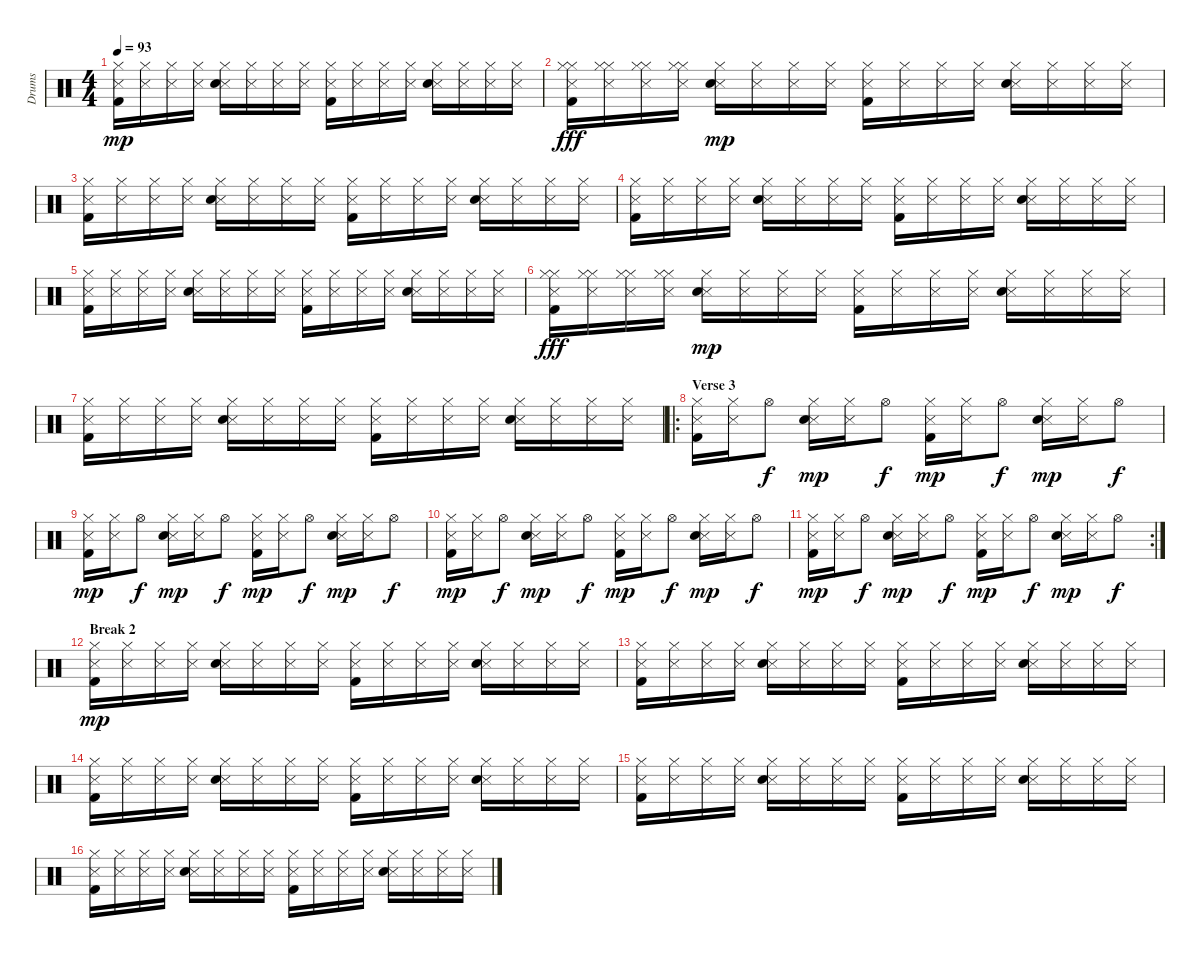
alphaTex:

\track ("Drums" "Drums") {instrument percussion}
\staff {score}
\articulation defaults
\ts (4 4)
\tempo 93
\clef neutral
\ks c
("Metronome (hit)" "Hi-Hat (closed)" "Kick (hit) 2").16{dy mp} ("Metronome (hit)" "Hi-Hat (closed)").16 ("Metronome (hit)" "Hi-Hat (closed)").16 ("Metronome (hit)" "Hi-Hat (closed)").16 ("Metronome (hit)" "Hi-Hat (closed)" "Snare (hit) 2").16 ("Metronome (hit)" "Hi-Hat (closed)").16 ("Metronome (hit)" "Hi-Hat (closed)").16 ("Metronome (hit)" "Hi-Hat (closed)").16 ("Metronome (hit)" "Hi-Hat (closed)" "Kick (hit) 2").16 ("Metronome (hit)" "Hi-Hat (closed)").16 ("Metronome (hit)" "Hi-Hat (closed)").16 ("Metronome (hit)" "Hi-Hat (closed)").16 ("Metronome (hit)" "Hi-Hat (closed)" "Snare (hit) 2").16 ("Metronome (hit)" "Hi-Hat (closed)").16 ("Metronome (hit)" "Hi-Hat (closed)").16 ("Metronome (hit)" "Hi-Hat (closed)").16 |
("Metronome (hit)" "Hi-Hat (closed)" "Hi-Hat (closed)" "Kick (hit) 2").16{dy fff} ("Metronome (hit)" "Hi-Hat (closed)" "Hi-Hat (closed)").16 ("Metronome (hit)" "Hi-Hat (closed)" "Hi-Hat (closed)").16 ("Metronome (hit)" "Hi-Hat (closed)" "Hi-Hat (closed)").16 ("Metronome (hit)" "Hi-Hat (closed)" "Snare (hit) 2").16{dy mp} ("Metronome (hit)" "Hi-Hat (closed)").16 ("Metronome (hit)" "Hi-Hat (closed)").16 ("Metronome (hit)" "Hi-Hat (closed)").16 ("Metronome (hit)" "Hi-Hat (closed)" "Kick (hit) 2").16 ("Metronome (hit)" "Hi-Hat (closed)").16 ("Metronome (hit)" "Hi-Hat (closed)").16 ("Metronome (hit)" "Hi-Hat (closed)").16 ("Metronome (hit)" "Hi-Hat (closed)" "Snare (hit) 2").16 ("Metronome (hit)" "Hi-Hat (closed)").16 ("Metronome (hit)" "Hi-Hat (closed)").16 ("Metronome (hit)" "Hi-Hat (closed)").16 |
("Metronome (hit)" "Hi-Hat (closed)" "Kick (hit) 2").16 ("Metronome (hit)" "Hi-Hat (closed)").16 ("Metronome (hit)" "Hi-Hat (closed)").16 ("Metronome (hit)" "Hi-Hat (closed)").16 ("Metronome (hit)" "Hi-Hat (closed)" "Snare (hit) 2").16 ("Metronome (hit)" "Hi-Hat (closed)").16 ("Metronome (hit)" "Hi-Hat (closed)").16 ("Metronome (hit)" "Hi-Hat (closed)").16 ("Metronome (hit)" "Hi-Hat (closed)" "Kick (hit) 2").16 ("Metronome (hit)" "Hi-Hat (closed)").16 ("Metronome (hit)" "Hi-Hat (closed)").16 ("Metronome (hit)" "Hi-Hat (closed)").16 ("Metronome (hit)" "Hi-Hat (closed)" "Snare (hit) 2").16 ("Metronome (hit)" "Hi-Hat (closed)").16 ("Metronome (hit)" "Hi-Hat (closed)").16 ("Metronome (hit)" "Hi-Hat (closed)").16 |
("Metronome (hit)" "Hi-Hat (closed)" "Kick (hit) 2").16 ("Metronome (hit)" "Hi-Hat (closed)").16 ("Metronome (hit)" "Hi-Hat (closed)").16 ("Metronome (hit)" "Hi-Hat (closed)").16 ("Metronome (hit)" "Hi-Hat (closed)" "Snare (hit) 2").16 ("Metronome (hit)" "Hi-Hat (closed)").16 ("Metronome (hit)" "Hi-Hat (closed)").16 ("Metronome (hit)" "Hi-Hat (closed)").16 ("Metronome (hit)" "Hi-Hat (closed)" "Kick (hit) 2").16 ("Metronome (hit)" "Hi-Hat (closed)").16 ("Metronome (hit)" "Hi-Hat (closed)").16 ("Metronome (hit)" "Hi-Hat (closed)").16 ("Metronome (hit)" "Hi-Hat (closed)" "Snare (hit) 2").16 ("Metronome (hit)" "Hi-Hat (closed)").16 ("Metronome (hit)" "Hi-Hat (closed)").16 ("Metronome (hit)" "Hi-Hat (closed)").16 |
("Metronome (hit)" "Hi-Hat (closed)" "Kick (hit) 2").16 ("Metronome (hit)" "Hi-Hat (closed)").16 ("Metronome (hit)" "Hi-Hat (closed)").16 ("Metronome (hit)" "Hi-Hat (closed)").16 ("Metronome (hit)" "Hi-Hat (closed)" "Snare (hit) 2").16 ("Metronome (hit)" "Hi-Hat (closed)").16 ("Metronome (hit)" "Hi-Hat (closed)").16 ("Metronome (hit)" "Hi-Hat (closed)").16 ("Metronome (hit)" "Hi-Hat (closed)" "Kick (hit) 2").16 ("Metronome (hit)" "Hi-Hat (closed)").16 ("Metronome (hit)" "Hi-Hat (closed)").16 ("Metronome (hit)" "Hi-Hat (closed)").16 ("Metronome (hit)" "Hi-Hat (closed)" "Snare (hit) 2").16 ("Metronome (hit)" "Hi-Hat (closed)").16 ("Metronome (hit)" "Hi-Hat (closed)").16 ("Metronome (hit)" "Hi-Hat (closed)").16 |
("Metronome (hit)" "Hi-Hat (closed)" "Hi-Hat (closed)" "Kick (hit) 2").16{dy fff} ("Metronome (hit)" "Hi-Hat (closed)" "Hi-Hat (closed)").16 ("Metronome (hit)" "Hi-Hat (closed)" "Hi-Hat (closed)").16 ("Metronome (hit)" "Hi-Hat (closed)" "Hi-Hat (closed)").16 ("Metronome (hit)" "Hi-Hat (closed)" "Snare (hit) 2").16{dy mp} ("Metronome (hit)" "Hi-Hat (closed)").16 ("Metronome (hit)" "Hi-Hat (closed)").16 ("Metronome (hit)" "Hi-Hat (closed)").16 ("Metronome (hit)" "Hi-Hat (closed)" "Kick (hit) 2").16 ("Metronome (hit)" "Hi-Hat (closed)").16 ("Metronome (hit)" "Hi-Hat (closed)").16 ("Metronome (hit)" "Hi-Hat (closed)").16 ("Metronome (hit)" "Hi-Hat (closed)" "Snare (hit) 2").16 ("Metronome (hit)" "Hi-Hat (closed)").16 ("Metronome (hit)" "Hi-Hat (closed)").16 ("Metronome (hit)" "Hi-Hat (closed)").16 |
("Metronome (hit)" "Hi-Hat (closed)" "Kick (hit) 2").16 ("Metronome (hit)" "Hi-Hat (closed)").16 ("Metronome (hit)" "Hi-Hat (closed)").16 ("Metronome (hit)" "Hi-Hat (closed)").16 ("Metronome (hit)" "Hi-Hat (closed)" "Snare (hit) 2").16 ("Metronome (hit)" "Hi-Hat (closed)").16 ("Metronome (hit)" "Hi-Hat (closed)").16 ("Metronome (hit)" "Hi-Hat (closed)").16 ("Metronome (hit)" "Hi-Hat (closed)" "Kick (hit) 2").16 ("Metronome (hit)" "Hi-Hat (closed)").16 ("Metronome (hit)" "Hi-Hat (closed)").16 ("Metronome (hit)" "Hi-Hat (closed)").16 ("Metronome (hit)" "Hi-Hat (closed)" "Snare (hit) 2").16 ("Metronome (hit)" "Hi-Hat (closed)").16 ("Metronome (hit)" "Hi-Hat (closed)").16 ("Metronome (hit)" "Hi-Hat (closed)").16 |
\ro
\section ("" "Verse 3")
("Metronome (hit)" "Hi-Hat (closed)" "Kick (hit) 2").16 ("Metronome (hit)" "Hi-Hat (closed)").16 "Hi-Hat (open)".8{dy f} ("Metronome (hit)" "Hi-Hat (closed)" "Snare (hit) 2").16{dy mp} ("Metronome (hit)" "Hi-Hat (closed)").16 "Hi-Hat (open)".8{dy f} ("Metronome (hit)" "Hi-Hat (closed)" "Kick (hit) 2").16{dy mp} ("Metronome (hit)" "Hi-Hat (closed)").16 "Hi-Hat (open)".8{dy f} ("Metronome (hit)" "Hi-Hat (closed)" "Snare (hit) 2").16{dy mp} ("Metronome (hit)" "Hi-Hat (closed)").16 "Hi-Hat (open)".8{dy f} |
("Metronome (hit)" "Hi-Hat (closed)" "Kick (hit) 2").16{dy mp} ("Metronome (hit)" "Hi-Hat (closed)").16 "Hi-Hat (open)".8{dy f} ("Metronome (hit)" "Hi-Hat (closed)" "Snare (hit) 2").16{dy mp} ("Metronome (hit)" "Hi-Hat (closed)").16 "Hi-Hat (open)".8{dy f} ("Metronome (hit)" "Hi-Hat (closed)" "Kick (hit) 2").16{dy mp} ("Metronome (hit)" "Hi-Hat (closed)").16 "Hi-Hat (open)".8{dy f} ("Metronome (hit)" "Hi-Hat (closed)" "Snare (hit) 2").16{dy mp} ("Metronome (hit)" "Hi-Hat (closed)").16 "Hi-Hat (open)".8{dy f} |
("Metronome (hit)" "Hi-Hat (closed)" "Kick (hit) 2").16{dy mp} ("Metronome (hit)" "Hi-Hat (closed)").16 "Hi-Hat (open)".8{dy f} ("Metronome (hit)" "Hi-Hat (closed)" "Snare (hit) 2").16{dy mp} ("Metronome (hit)" "Hi-Hat (closed)").16 "Hi-Hat (open)".8{dy f} ("Metronome (hit)" "Hi-Hat (closed)" "Kick (hit) 2").16{dy mp} ("Metronome (hit)" "Hi-Hat (closed)").16 "Hi-Hat (open)".8{dy f} ("Metronome (hit)" "Hi-Hat (closed)" "Snare (hit) 2").16{dy mp} ("Metronome (hit)" "Hi-Hat (closed)").16 "Hi-Hat (open)".8{dy f} |
\rc 2
("Metronome (hit)" "Hi-Hat (closed)" "Kick (hit) 2").16{dy mp} ("Metronome (hit)" "Hi-Hat (closed)").16 "Hi-Hat (open)".8{dy f} ("Metronome (hit)" "Hi-Hat (closed)" "Snare (hit) 2").16{dy mp} ("Metronome (hit)" "Hi-Hat (closed)").16 "Hi-Hat (open)".8{dy f} ("Metronome (hit)" "Hi-Hat (closed)" "Kick (hit) 2").16{dy mp} ("Metronome (hit)" "Hi-Hat (closed)").16 "Hi-Hat (open)".8{dy f} ("Metronome (hit)" "Hi-Hat (closed)" "Snare (hit) 2").16{dy mp} ("Metronome (hit)" "Hi-Hat (closed)").16 "Hi-Hat (open)".8{dy f} |
\section ("" "Break 2")
("Metronome (hit)" "Hi-Hat (closed)" "Kick (hit) 2").16{dy mp} ("Metronome (hit)" "Hi-Hat (closed)").16 ("Metronome (hit)" "Hi-Hat (closed)").16 ("Metronome (hit)" "Hi-Hat (closed)").16 ("Metronome (hit)" "Hi-Hat (closed)" "Snare (hit) 2").16 ("Metronome (hit)" "Hi-Hat (closed)").16 ("Metronome (hit)" "Hi-Hat (closed)").16 ("Metronome (hit)" "Hi-Hat (closed)").16 ("Metronome (hit)" "Hi-Hat (closed)" "Kick (hit) 2").16 ("Metronome (hit)" "Hi-Hat (closed)").16 ("Metronome (hit)" "Hi-Hat (closed)").16 ("Metronome (hit)" "Hi-Hat (closed)").16 ("Metronome (hit)" "Hi-Hat (closed)" "Snare (hit) 2").16 ("Metronome (hit)" "Hi-Hat (closed)").16 ("Metronome (hit)" "Hi-Hat (closed)").16 ("Metronome (hit)" "Hi-Hat (closed)").16 |
("Metronome (hit)" "Hi-Hat (closed)" "Kick (hit) 2").16 ("Metronome (hit)" "Hi-Hat (closed)").16 ("Metronome (hit)" "Hi-Hat (closed)").16 ("Metronome (hit)" "Hi-Hat (closed)").16 ("Metronome (hit)" "Hi-Hat (closed)" "Snare (hit) 2").16 ("Metronome (hit)" "Hi-Hat (closed)").16 ("Metronome (hit)" "Hi-Hat (closed)").16 ("Metronome (hit)" "Hi-Hat (closed)").16 ("Metronome (hit)" "Hi-Hat (closed)" "Kick (hit) 2").16 ("Metronome (hit)" "Hi-Hat (closed)").16 ("Metronome (hit)" "Hi-Hat (closed)").16 ("Metronome (hit)" "Hi-Hat (closed)").16 ("Metronome (hit)" "Hi-Hat (closed)" "Snare (hit) 2").16 ("Metronome (hit)" "Hi-Hat (closed)").16 ("Metronome (hit)" "Hi-Hat (closed)").16 ("Metronome (hit)" "Hi-Hat (closed)").16 |
("Metronome (hit)" "Hi-Hat (closed)" "Kick (hit) 2").16 ("Metronome (hit)" "Hi-Hat (closed)").16 ("Metronome (hit)" "Hi-Hat (closed)").16 ("Metronome (hit)" "Hi-Hat (closed)").16 ("Metronome (hit)" "Hi-Hat (closed)" "Snare (hit) 2").16 ("Metronome (hit)" "Hi-Hat (closed)").16 ("Metronome (hit)" "Hi-Hat (closed)").16 ("Metronome (hit)" "Hi-Hat (closed)").16 ("Metronome (hit)" "Hi-Hat (closed)" "Kick (hit) 2").16 ("Metronome (hit)" "Hi-Hat (closed)").16 ("Metronome (hit)" "Hi-Hat (closed)").16 ("Metronome (hit)" "Hi-Hat (closed)").16 ("Metronome (hit)" "Hi-Hat (closed)" "Snare (hit) 2").16 ("Metronome (hit)" "Hi-Hat (closed)").16 ("Metronome (hit)" "Hi-Hat (closed)").16 ("Metronome (hit)" "Hi-Hat (closed)").16 |
("Metronome (hit)" "Hi-Hat (closed)" "Kick (hit) 2").16 ("Metronome (hit)" "Hi-Hat (closed)").16 ("Metronome (hit)" "Hi-Hat (closed)").16 ("Metronome (hit)" "Hi-Hat (closed)").16 ("Metronome (hit)" "Hi-Hat (closed)" "Snare (hit) 2").16 ("Metronome (hit)" "Hi-Hat (closed)").16 ("Metronome (hit)" "Hi-Hat (closed)").16 ("Metronome (hit)" "Hi-Hat (closed)").16 ("Metronome (hit)" "Hi-Hat (closed)" "Kick (hit) 2").16 ("Metronome (hit)" "Hi-Hat (closed)").16 ("Metronome (hit)" "Hi-Hat (closed)").16 ("Metronome (hit)" "Hi-Hat (closed)").16 ("Metronome (hit)" "Hi-Hat (closed)" "Snare (hit) 2").16 ("Metronome (hit)" "Hi-Hat (closed)").16 ("Metronome (hit)" "Hi-Hat (closed)").16 ("Metronome (hit)" "Hi-Hat (closed)").16 |
("Metronome (hit)" "Hi-Hat (closed)" "Kick (hit) 2").16 ("Metronome (hit)" "Hi-Hat (closed)").16 ("Metronome (hit)" "Hi-Hat (closed)").16 ("Metronome (hit)" "Hi-Hat (closed)").16 ("Metronome (hit)" "Hi-Hat (closed)" "Snare (hit) 2").16 ("Metronome (hit)" "Hi-Hat (closed)").16 ("Metronome (hit)" "Hi-Hat (closed)").16 ("Metronome (hit)" "Hi-Hat (closed)").16 ("Metronome (hit)" "Hi-Hat (closed)" "Kick (hit) 2").16 ("Metronome (hit)" "Hi-Hat (closed)").16 ("Metronome (hit)" "Hi-Hat (closed)").16 ("Metronome (hit)" "Hi-Hat (closed)").16 ("Metronome (hit)" "Hi-Hat (closed)" "Snare (hit) 2").16 ("Metronome (hit)" "Hi-Hat (closed)").16 ("Metronome (hit)" "Hi-Hat (closed)").16 ("Metronome (hit)" "Hi-Hat (closed)").16
